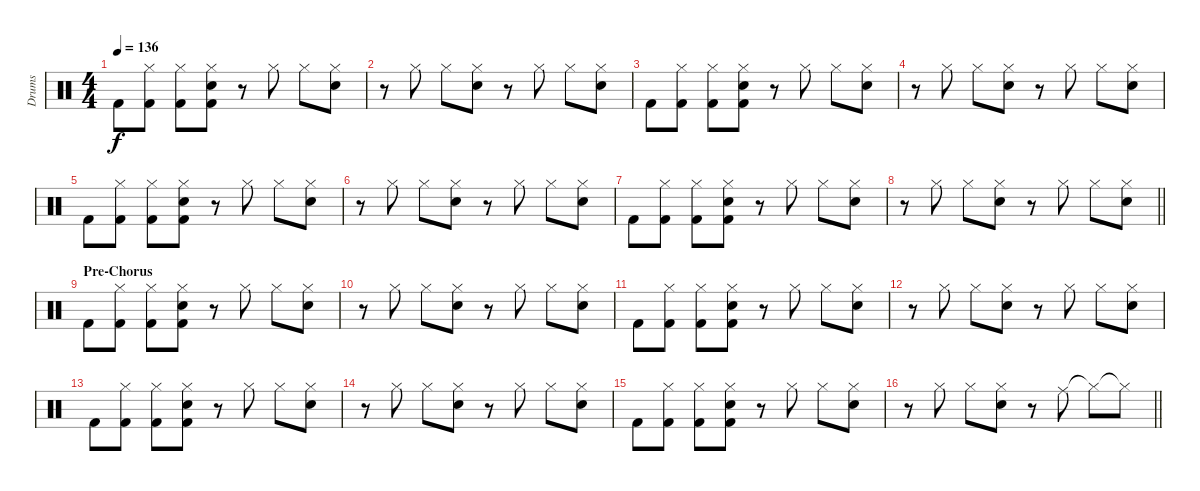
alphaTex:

\track ("Drums" "Drums") {instrument percussion}
\staff {score}
\articulation defaults
\ts (4 4)
\section ("" "")
\tempo 136
\clef neutral
\ks c "Kick (hit) 2".8{dy f}
("Kick (hit) 2" "Hi-Hat (closed)").8 ("Kick (hit) 2" "Hi-Hat (closed)").8 ("Kick (hit) 2" "Hi-Hat (closed)" "Snare (hit) 2").8 r.8 "Hi-Hat (closed)".8 "Hi-Hat (closed)".8 ("Hi-Hat (closed)" "Snare (hit) 2").8 |
r.8 "Hi-Hat (closed)".8 "Hi-Hat (closed)".8 ("Hi-Hat (closed)" "Snare (hit) 2").8 r.8 "Hi-Hat (closed)".8 "Hi-Hat (closed)".8 ("Hi-Hat (closed)" "Snare (hit) 2").8 |
"Kick (hit) 2".8 ("Kick (hit) 2" "Hi-Hat (closed)").8 ("Kick (hit) 2" "Hi-Hat (closed)").8 ("Kick (hit) 2" "Hi-Hat (closed)" "Snare (hit) 2").8 r.8 "Hi-Hat (closed)".8 "Hi-Hat (closed)".8 ("Hi-Hat (closed)" "Snare (hit) 2").8 |
r.8 "Hi-Hat (closed)".8 "Hi-Hat (closed)".8 ("Hi-Hat (closed)" "Snare (hit) 2").8 r.8 "Hi-Hat (closed)".8 "Hi-Hat (closed)".8 ("Hi-Hat (closed)" "Snare (hit) 2").8 |
"Kick (hit) 2".8 ("Kick (hit) 2" "Hi-Hat (closed)").8 ("Kick (hit) 2" "Hi-Hat (closed)").8 ("Kick (hit) 2" "Hi-Hat (closed)" "Snare (hit) 2").8 r.8 "Hi-Hat (closed)".8 "Hi-Hat (closed)".8 ("Hi-Hat (closed)" "Snare (hit) 2").8 |
r.8 "Hi-Hat (closed)".8 "Hi-Hat (closed)".8 ("Hi-Hat (closed)" "Snare (hit) 2").8 r.8 "Hi-Hat (closed)".8 "Hi-Hat (closed)".8 ("Hi-Hat (closed)" "Snare (hit) 2").8 |
"Kick (hit) 2".8 ("Kick (hit) 2" "Hi-Hat (closed)").8 ("Kick (hit) 2" "Hi-Hat (closed)").8 ("Kick (hit) 2" "Hi-Hat (closed)" "Snare (hit) 2").8 r.8 "Hi-Hat (closed)".8 "Hi-Hat (closed)".8 ("Hi-Hat (closed)" "Snare (hit) 2").8 |
\barLineRight lightlight
r.8 "Hi-Hat (closed)".8 "Hi-Hat (closed)".8 ("Hi-Hat (closed)" "Snare (hit) 2").8 r.8 "Hi-Hat (closed)".8 "Hi-Hat (closed)".8 ("Hi-Hat (closed)" "Snare (hit) 2").8 |
\section ("" "Pre-Chorus")
"Kick (hit) 2".8 ("Kick (hit) 2" "Hi-Hat (closed)").8 ("Kick (hit) 2" "Hi-Hat (closed)").8 ("Kick (hit) 2" "Hi-Hat (closed)" "Snare (hit) 2").8 r.8 "Hi-Hat (closed)".8 "Hi-Hat (closed)".8 ("Hi-Hat (closed)" "Snare (hit) 2").8 |
r.8 "Hi-Hat (closed)".8 "Hi-Hat (closed)".8 ("Hi-Hat (closed)" "Snare (hit) 2").8 r.8 "Hi-Hat (closed)".8 "Hi-Hat (closed)".8 ("Hi-Hat (closed)" "Snare (hit) 2").8 |
"Kick (hit) 2".8 ("Kick (hit) 2" "Hi-Hat (closed)").8 ("Kick (hit) 2" "Hi-Hat (closed)").8 ("Kick (hit) 2" "Hi-Hat (closed)" "Snare (hit) 2").8 r.8 "Hi-Hat (closed)".8 "Hi-Hat (closed)".8 ("Hi-Hat (closed)" "Snare (hit) 2").8 |
r.8 "Hi-Hat (closed)".8 "Hi-Hat (closed)".8 ("Hi-Hat (closed)" "Snare (hit) 2").8 r.8 "Hi-Hat (closed)".8 "Hi-Hat (closed)".8 ("Hi-Hat (closed)" "Snare (hit) 2").8 |
"Kick (hit) 2".8 ("Kick (hit) 2" "Hi-Hat (closed)").8 ("Kick (hit) 2" "Hi-Hat (closed)").8 ("Kick (hit) 2" "Hi-Hat (closed)" "Snare (hit) 2").8 r.8 "Hi-Hat (closed)".8 "Hi-Hat (closed)".8 ("Hi-Hat (closed)" "Snare (hit) 2").8 |
r.8 "Hi-Hat (closed)".8 "Hi-Hat (closed)".8 ("Hi-Hat (closed)" "Snare (hit) 2").8 r.8 "Hi-Hat (closed)".8 "Hi-Hat (closed)".8 ("Hi-Hat (closed)" "Snare (hit) 2").8 |
"Kick (hit) 2".8 ("Kick (hit) 2" "Hi-Hat (closed)").8 ("Kick (hit) 2" "Hi-Hat (closed)").8 ("Kick (hit) 2" "Hi-Hat (closed)" "Snare (hit) 2").8 r.8 "Hi-Hat (closed)".8 "Hi-Hat (closed)".8 ("Hi-Hat (closed)" "Snare (hit) 2").8 |
\barLineRight lightlight
r.8 "Hi-Hat (closed)".8 "Hi-Hat (closed)".8 ("Hi-Hat (closed)" "Snare (hit) 2").8 r.8 "Ride (middle)".8 "Hi-Hat (closed)"{t}.8 "Hi-Hat (closed)"{t}.8
